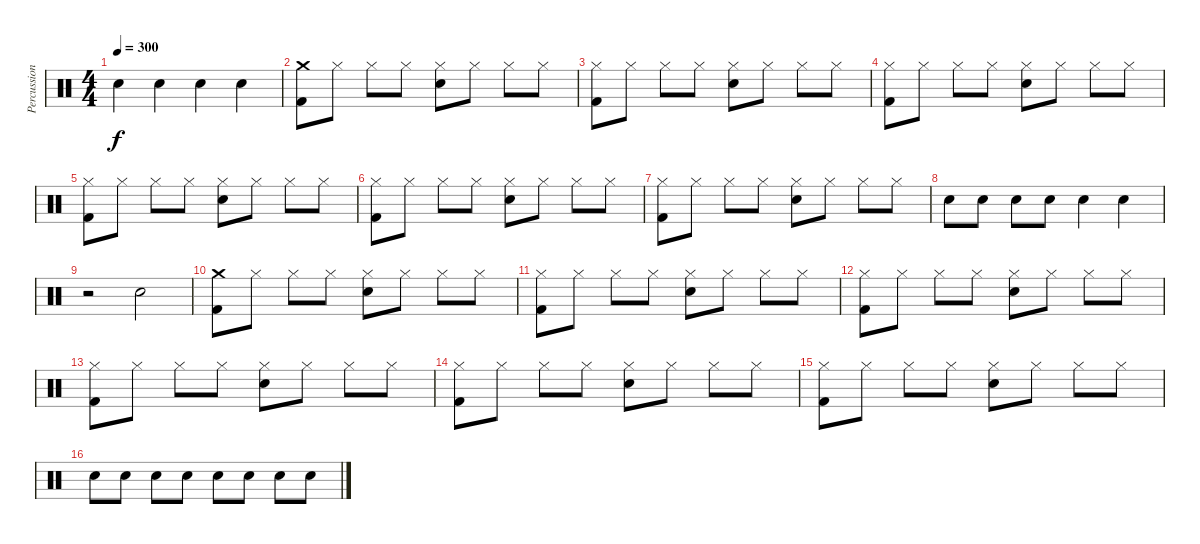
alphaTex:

\track ("Percussion" "Percussion") {instrument percussion}
\staff {score}
\articulation defaults
\ts (4 4)
\tempo 300
\clef neutral
\ks c "Snare (hit) 2".4{dy f} "Snare (hit) 2".4 "Snare (hit) 2".4 "Snare (hit) 2".4
|
("Crash medium (hit)" "Kick (hit) 2").8 "Hi-Hat (closed)".8 "Hi-Hat (closed)".8 "Hi-Hat (closed)".8 ("Snare (hit) 2" "Hi-Hat (closed)").8 "Hi-Hat (closed)".8 "Hi-Hat (closed)".8 "Hi-Hat (closed)".8 |
("Kick (hit) 2" "Hi-Hat (closed)").8 "Hi-Hat (closed)".8 "Hi-Hat (closed)".8 "Hi-Hat (closed)".8 ("Snare (hit) 2" "Hi-Hat (closed)").8 "Hi-Hat (closed)".8 "Hi-Hat (closed)".8 "Hi-Hat (closed)".8 |
("Kick (hit) 2" "Hi-Hat (closed)").8 "Hi-Hat (closed)".8 "Hi-Hat (closed)".8 "Hi-Hat (closed)".8 ("Snare (hit) 2" "Hi-Hat (closed)").8 "Hi-Hat (closed)".8 "Hi-Hat (closed)".8 "Hi-Hat (closed)".8 |
("Kick (hit) 2" "Hi-Hat (closed)").8 "Hi-Hat (closed)".8 "Hi-Hat (closed)".8 "Hi-Hat (closed)".8 ("Snare (hit) 2" "Hi-Hat (closed)").8 "Hi-Hat (closed)".8 "Hi-Hat (closed)".8 "Hi-Hat (closed)".8 |
("Kick (hit) 2" "Hi-Hat (closed)").8 "Hi-Hat (closed)".8 "Hi-Hat (closed)".8 "Hi-Hat (closed)".8 ("Snare (hit) 2" "Hi-Hat (closed)").8 "Hi-Hat (closed)".8 "Hi-Hat (closed)".8 "Hi-Hat (closed)".8 |
("Kick (hit) 2" "Hi-Hat (closed)").8 "Hi-Hat (closed)".8 "Hi-Hat (closed)".8 "Hi-Hat (closed)".8 ("Snare (hit) 2" "Hi-Hat (closed)").8 "Hi-Hat (closed)".8 "Hi-Hat (closed)".8 "Hi-Hat (closed)".8 |
"Snare (hit) 2".8 "Snare (hit) 2".8 "Snare (hit) 2".8 "Snare (hit) 2".8 "Snare (hit) 2".4 "Snare (hit) 2".4 |
r.2 "Snare (hit) 2".2 |
("Crash medium (hit)" "Kick (hit) 2").8 "Hi-Hat (closed)".8 "Hi-Hat (closed)".8 "Hi-Hat (closed)".8 ("Snare (hit) 2" "Hi-Hat (closed)").8 "Hi-Hat (closed)".8 "Hi-Hat (closed)".8 "Hi-Hat (closed)".8 |
("Kick (hit) 2" "Hi-Hat (closed)").8 "Hi-Hat (closed)".8 "Hi-Hat (closed)".8 "Hi-Hat (closed)".8 ("Snare (hit) 2" "Hi-Hat (closed)").8 "Hi-Hat (closed)".8 "Hi-Hat (closed)".8 "Hi-Hat (closed)".8 |
("Kick (hit) 2" "Hi-Hat (closed)").8 "Hi-Hat (closed)".8 "Hi-Hat (closed)".8 "Hi-Hat (closed)".8 ("Snare (hit) 2" "Hi-Hat (closed)").8 "Hi-Hat (closed)".8 "Hi-Hat (closed)".8 "Hi-Hat (closed)".8 |
("Kick (hit) 2" "Hi-Hat (closed)").8 "Hi-Hat (closed)".8 "Hi-Hat (closed)".8 "Hi-Hat (closed)".8 ("Snare (hit) 2" "Hi-Hat (closed)").8 "Hi-Hat (closed)".8 "Hi-Hat (closed)".8 "Hi-Hat (closed)".8 |
("Kick (hit) 2" "Hi-Hat (closed)").8 "Hi-Hat (closed)".8 "Hi-Hat (closed)".8 "Hi-Hat (closed)".8 ("Snare (hit) 2" "Hi-Hat (closed)").8 "Hi-Hat (closed)".8 "Hi-Hat (closed)".8 "Hi-Hat (closed)".8 |
("Kick (hit) 2" "Hi-Hat (closed)").8 "Hi-Hat (closed)".8 "Hi-Hat (closed)".8 "Hi-Hat (closed)".8 ("Snare (hit) 2" "Hi-Hat (closed)").8 "Hi-Hat (closed)".8 "Hi-Hat (closed)".8 "Hi-Hat (closed)".8 |
"Snare (hit) 2".8 "Snare (hit) 2".8 "Snare (hit) 2".8 "Snare (hit) 2".8 "Snare (hit) 2".8 "Snare (hit) 2".8 "Snare (hit) 2".8 "Snare (hit) 2".8
